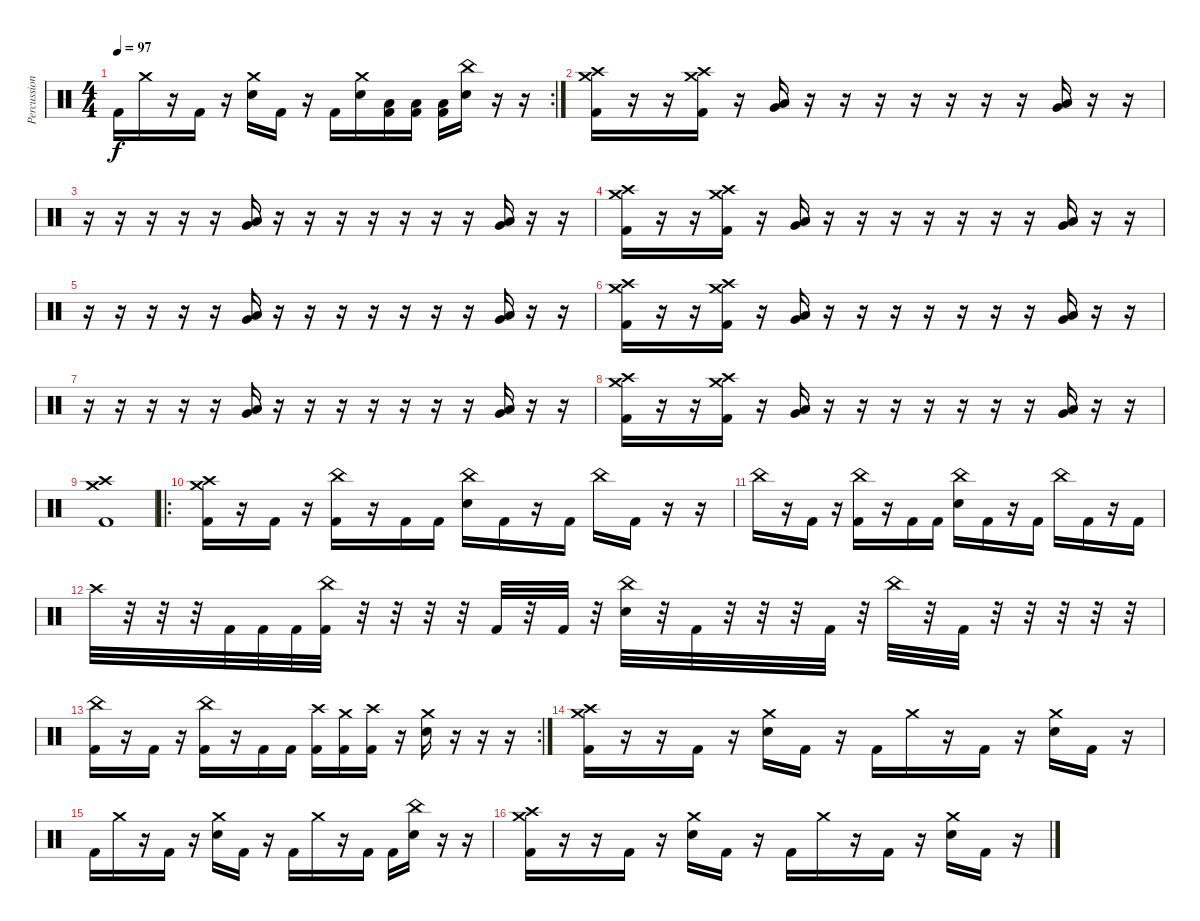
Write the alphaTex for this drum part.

\track ("Percussion" "Percussion") {instrument percussion}
\staff {score}
\articulation defaults
\rc 2
\ts (4 4)
\tempo 97
\clef neutral
\ks c "Kick (hit) 2".16{dy f} "Crash medium (hit)".16
r.16 "Kick (hit) 2".16 r.16 ("Crash medium (hit)" "Snare (hit) 2").16 "Kick (hit) 2".16 r.16 "Kick (hit) 2".16 ("Crash medium (hit)" "Snare (hit) 2").16 ("Low Tom (hit)" "Kick (hit) 2").16 ("Low Tom (hit)" "Kick (hit) 2").16 ("Low Tom (hit)" "Kick (hit) 2").16 ("China (hit)" "Snare (hit) 2").16 r.16 r.16 |
("Crash medium (hit)" "Crash high (hit)" "Kick (hit) 2").16 r.16 r.16 ("Crash medium (hit)" "Crash high (hit)" "Kick (hit) 2").16 r.16 ("Low Tom (hit)" "Very Low Tom (hit)").16 r.16 r.16 r.16 r.16 r.16 r.16 r.16 ("Low Tom (hit)" "Very Low Tom (hit)").16 r.16 r.16 |
r.16 r.16 r.16 r.16 r.16 ("Low Tom (hit)" "Very Low Tom (hit)").16 r.16 r.16 r.16 r.16 r.16 r.16 r.16 ("Very Low Tom (hit)" "Low Tom (hit)").16 r.16 r.16 |
("Crash medium (hit)" "Crash high (hit)" "Kick (hit) 2").16 r.16 r.16 ("Crash medium (hit)" "Crash high (hit)" "Kick (hit) 2").16 r.16 ("Low Tom (hit)" "Very Low Tom (hit)").16 r.16 r.16 r.16 r.16 r.16 r.16 r.16 ("Low Tom (hit)" "Very Low Tom (hit)").16 r.16 r.16 |
r.16 r.16 r.16 r.16 r.16 ("Low Tom (hit)" "Very Low Tom (hit)").16 r.16 r.16 r.16 r.16 r.16 r.16 r.16 ("Very Low Tom (hit)" "Low Tom (hit)").16 r.16 r.16 |
("Crash medium (hit)" "Crash high (hit)" "Kick (hit) 2").16 r.16 r.16 ("Crash medium (hit)" "Crash high (hit)" "Kick (hit) 2").16 r.16 ("Low Tom (hit)" "Very Low Tom (hit)").16 r.16 r.16 r.16 r.16 r.16 r.16 r.16 ("Low Tom (hit)" "Very Low Tom (hit)").16 r.16 r.16 |
r.16 r.16 r.16 r.16 r.16 ("Low Tom (hit)" "Very Low Tom (hit)").16 r.16 r.16 r.16 r.16 r.16 r.16 r.16 ("Very Low Tom (hit)" "Low Tom (hit)").16 r.16 r.16 |
("Crash medium (hit)" "Crash high (hit)" "Kick (hit) 2").16 r.16 r.16 ("Crash medium (hit)" "Crash high (hit)" "Kick (hit) 2").16 r.16 ("Low Tom (hit)" "Very Low Tom (hit)").16 r.16 r.16 r.16 r.16 r.16 r.16 r.16 ("Low Tom (hit)" "Very Low Tom (hit)").16 r.16 r.16 |
("Crash medium (hit)" "Crash high (hit)" "Kick (hit) 2").1 |
\ro
("Crash medium (hit)" "Crash high (hit)" "Kick (hit) 2").16 r.16 "Kick (hit) 2".16 r.16 ("China (hit)" "Kick (hit) 2").16 r.16 "Kick (hit) 2".16 "Kick (hit) 2".16 ("China (hit)" "Snare (hit) 2").16 "Kick (hit) 2".16 r.16 "Kick (hit) 2".16 "China (hit)".16 "Kick (hit) 2".16 r.16 r.16 |
"China (hit)".16 r.16 "Kick (hit) 2".16 r.16 ("China (hit)" "Kick (hit) 2").16 r.16 "Kick (hit) 2".16 "Kick (hit) 2".16 ("China (hit)" "Snare (hit) 2").16 "Kick (hit) 2".16 r.16 "Kick (hit) 2".16 "China (hit)".16 "Kick (hit) 2".16 r.16 "Kick (hit) 2".16 |
"Crash high (hit)".32 r.32 r.32 r.32 "Kick (hit) 2".32 "Kick (hit) 2".32 "Kick (hit) 2".32 ("China (hit)" "Kick (hit) 2").32 r.32 r.32 r.32 r.32 "Kick (hit) 2".32 r.32 "Kick (hit) 2".32 r.32 ("China (hit)" "Snare (hit) 2").32 r.32 "Kick (hit) 2".32 r.32 r.32 r.32 "Kick (hit) 2".32 r.32 "China (hit)".32 r.32 "Kick (hit) 2".32 r.32 r.32 r.32 r.32 r.32 |
\rc 2
("China (hit)" "Kick (hit) 2").16 r.16 "Kick (hit) 2".16 r.16 ("China (hit)" "Kick (hit) 2").16 r.16 "Kick (hit) 2".16 "Kick (hit) 2".16 ("Crash high (hit)" "Kick (hit) 2").16 ("Crash medium (hit)" "Kick (hit) 2").16 ("Crash high (hit)" "Kick (hit) 2").16 r.16 ("Crash medium (hit)" "Snare (hit) 2").16 r.16 r.16 r.16 |
("Crash medium (hit)" "Crash high (hit)" "Kick (hit) 2").16 r.16 r.16 "Kick (hit) 2".16 r.16 ("Crash medium (hit)" "Snare (hit) 2").16 "Kick (hit) 2".16 r.16 "Kick (hit) 2".16 "Crash medium (hit)".16 r.16 "Kick (hit) 2".16 r.16 ("Crash medium (hit)" "Snare (hit) 2").16 "Kick (hit) 2".16 r.16 |
"Kick (hit) 2".16 "Crash medium (hit)".16 r.16 "Kick (hit) 2".16 r.16 ("Crash medium (hit)" "Snare (hit) 2").16 "Kick (hit) 2".16 r.16 "Kick (hit) 2".16 "Crash medium (hit)".16 r.16 "Kick (hit) 2".16 "Kick (hit) 2".16 ("China (hit)" "Snare (hit) 2").16 r.16 r.16 |
("Crash medium (hit)" "Crash high (hit)" "Kick (hit) 2").16 r.16 r.16 "Kick (hit) 2".16 r.16 ("Crash medium (hit)" "Snare (hit) 2").16 "Kick (hit) 2".16 r.16 "Kick (hit) 2".16 "Crash medium (hit)".16 r.16 "Kick (hit) 2".16 r.16 ("Crash medium (hit)" "Snare (hit) 2").16 "Kick (hit) 2".16 r.16
